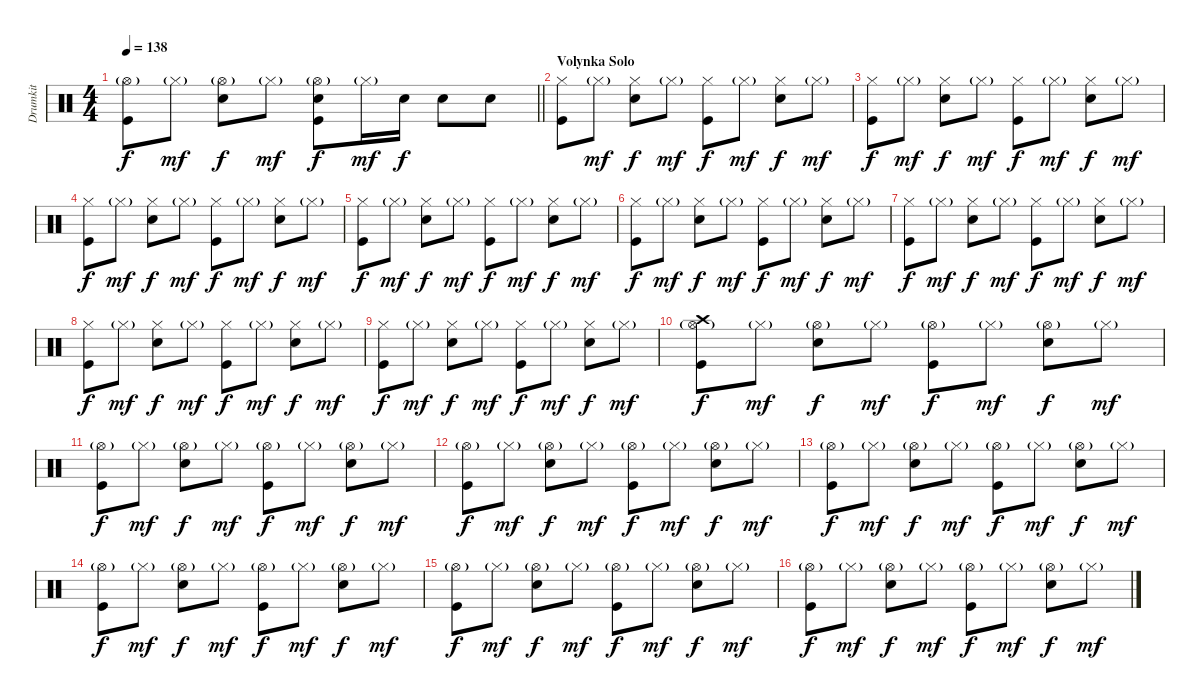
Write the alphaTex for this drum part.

\track ("Drumkit" "Drumkit") {instrument percussion}
\staff {score}
\articulation defaults
\ts (4 4)
\tempo 138
\clef neutral
\barLineRight lightlight
\ks c
("Hi-Hat (open)"{g} "Kick (hit)").8{dy f} "Hi-Hat (closed)"{g}.8{dy mf} ("Hi-Hat (open)"{g} "Snare (hit) 2").8{dy f} "Hi-Hat (closed)"{g}.8{dy mf} ("Hi-Hat (open)"{g} "Snare (hit) 2" "Kick (hit)").8{dy f} "Hi-Hat (closed)"{g}.16{dy mf} "Snare (hit) 2".16{dy f} "Snare (hit) 2".8 "Snare (hit) 2".8 |
\section ("" "Volynka Solo")
("Hi-Hat (closed)" "Kick (hit)").8 "Hi-Hat (closed)"{g}.8{dy mf} ("Hi-Hat (closed)" "Snare (hit) 2").8{dy f} "Hi-Hat (closed)"{g}.8{dy mf} ("Hi-Hat (closed)" "Kick (hit)").8{dy f} "Hi-Hat (closed)"{g}.8{dy mf} ("Hi-Hat (closed)" "Snare (hit) 2").8{dy f} "Hi-Hat (closed)"{g}.8{dy mf} |
("Hi-Hat (closed)" "Kick (hit)").8{dy f} "Hi-Hat (closed)"{g}.8{dy mf} ("Hi-Hat (closed)" "Snare (hit) 2").8{dy f} "Hi-Hat (closed)"{g}.8{dy mf} ("Hi-Hat (closed)" "Kick (hit)").8{dy f} "Hi-Hat (closed)"{g}.8{dy mf} ("Hi-Hat (closed)" "Snare (hit) 2").8{dy f} "Hi-Hat (closed)"{g}.8{dy mf} |
("Hi-Hat (closed)" "Kick (hit)").8{dy f} "Hi-Hat (closed)"{g}.8{dy mf} ("Hi-Hat (closed)" "Snare (hit) 2").8{dy f} "Hi-Hat (closed)"{g}.8{dy mf} ("Hi-Hat (closed)" "Kick (hit)").8{dy f} "Hi-Hat (closed)"{g}.8{dy mf} ("Hi-Hat (closed)" "Snare (hit) 2").8{dy f} "Hi-Hat (closed)"{g}.8{dy mf} |
("Hi-Hat (closed)" "Kick (hit)").8{dy f} "Hi-Hat (closed)"{g}.8{dy mf} ("Hi-Hat (closed)" "Snare (hit) 2").8{dy f} "Hi-Hat (closed)"{g}.8{dy mf} ("Hi-Hat (closed)" "Kick (hit)").8{dy f} "Hi-Hat (closed)"{g}.8{dy mf} ("Hi-Hat (closed)" "Snare (hit) 2").8{dy f} "Hi-Hat (closed)"{g}.8{dy mf} |
("Hi-Hat (closed)" "Kick (hit)").8{dy f} "Hi-Hat (closed)"{g}.8{dy mf} ("Hi-Hat (closed)" "Snare (hit) 2").8{dy f} "Hi-Hat (closed)"{g}.8{dy mf} ("Hi-Hat (closed)" "Kick (hit)").8{dy f} "Hi-Hat (closed)"{g}.8{dy mf} ("Hi-Hat (closed)" "Snare (hit) 2").8{dy f} "Hi-Hat (closed)"{g}.8{dy mf} |
("Hi-Hat (closed)" "Kick (hit)").8{dy f} "Hi-Hat (closed)"{g}.8{dy mf} ("Hi-Hat (closed)" "Snare (hit) 2").8{dy f} "Hi-Hat (closed)"{g}.8{dy mf} ("Hi-Hat (closed)" "Kick (hit)").8{dy f} "Hi-Hat (closed)"{g}.8{dy mf} ("Hi-Hat (closed)" "Snare (hit) 2").8{dy f} "Hi-Hat (closed)"{g}.8{dy mf} |
("Hi-Hat (closed)" "Kick (hit)").8{dy f} "Hi-Hat (closed)"{g}.8{dy mf} ("Hi-Hat (closed)" "Snare (hit) 2").8{dy f} "Hi-Hat (closed)"{g}.8{dy mf} ("Hi-Hat (closed)" "Kick (hit)").8{dy f} "Hi-Hat (closed)"{g}.8{dy mf} ("Hi-Hat (closed)" "Snare (hit) 2").8{dy f} "Hi-Hat (closed)"{g}.8{dy mf} |
("Hi-Hat (closed)" "Kick (hit)").8{dy f} "Hi-Hat (closed)"{g}.8{dy mf} ("Hi-Hat (closed)" "Snare (hit) 2").8{dy f} "Hi-Hat (closed)"{g}.8{dy mf} ("Hi-Hat (closed)" "Kick (hit)").8{dy f} "Hi-Hat (closed)"{g}.8{dy mf} ("Hi-Hat (closed)" "Snare (hit) 2").8{dy f} "Hi-Hat (closed)"{g}.8{dy mf} |
("Crash high (hit)" "Hi-Hat (open)"{g} "Kick (hit)").8{dy f} "Hi-Hat (closed)"{g}.8{dy mf} ("Hi-Hat (open)"{g} "Snare (hit) 2").8{dy f} "Hi-Hat (closed)"{g}.8{dy mf} ("Hi-Hat (open)"{g} "Kick (hit)").8{dy f} "Hi-Hat (closed)"{g}.8{dy mf} ("Hi-Hat (open)"{g} "Snare (hit) 2").8{dy f} "Hi-Hat (closed)"{g}.8{dy mf} |
("Hi-Hat (open)"{g} "Kick (hit)").8{dy f} "Hi-Hat (closed)"{g}.8{dy mf} ("Hi-Hat (open)"{g} "Snare (hit) 2").8{dy f} "Hi-Hat (closed)"{g}.8{dy mf} ("Hi-Hat (open)"{g} "Kick (hit)").8{dy f} "Hi-Hat (closed)"{g}.8{dy mf} ("Hi-Hat (open)"{g} "Snare (hit) 2").8{dy f} "Hi-Hat (closed)"{g}.8{dy mf} |
("Hi-Hat (open)"{g} "Kick (hit)").8{dy f} "Hi-Hat (closed)"{g}.8{dy mf} ("Hi-Hat (open)"{g} "Snare (hit) 2").8{dy f} "Hi-Hat (closed)"{g}.8{dy mf} ("Hi-Hat (open)"{g} "Kick (hit)").8{dy f} "Hi-Hat (closed)"{g}.8{dy mf} ("Hi-Hat (open)"{g} "Snare (hit) 2").8{dy f} "Hi-Hat (closed)"{g}.8{dy mf} |
("Hi-Hat (open)"{g} "Kick (hit)").8{dy f} "Hi-Hat (closed)"{g}.8{dy mf} ("Hi-Hat (open)"{g} "Snare (hit) 2").8{dy f} "Hi-Hat (closed)"{g}.8{dy mf} ("Hi-Hat (open)"{g} "Kick (hit)").8{dy f} "Hi-Hat (closed)"{g}.8{dy mf} ("Hi-Hat (open)"{g} "Snare (hit) 2").8{dy f} "Hi-Hat (closed)"{g}.8{dy mf} |
("Hi-Hat (open)"{g} "Kick (hit)").8{dy f} "Hi-Hat (closed)"{g}.8{dy mf} ("Hi-Hat (open)"{g} "Snare (hit) 2").8{dy f} "Hi-Hat (closed)"{g}.8{dy mf} ("Hi-Hat (open)"{g} "Kick (hit)").8{dy f} "Hi-Hat (closed)"{g}.8{dy mf} ("Hi-Hat (open)"{g} "Snare (hit) 2").8{dy f} "Hi-Hat (closed)"{g}.8{dy mf} |
("Hi-Hat (open)"{g} "Kick (hit)").8{dy f} "Hi-Hat (closed)"{g}.8{dy mf} ("Hi-Hat (open)"{g} "Snare (hit) 2").8{dy f} "Hi-Hat (closed)"{g}.8{dy mf} ("Hi-Hat (open)"{g} "Kick (hit)").8{dy f} "Hi-Hat (closed)"{g}.8{dy mf} ("Hi-Hat (open)"{g} "Snare (hit) 2").8{dy f} "Hi-Hat (closed)"{g}.8{dy mf} |
("Hi-Hat (open)"{g} "Kick (hit)").8{dy f} "Hi-Hat (closed)"{g}.8{dy mf} ("Hi-Hat (open)"{g} "Snare (hit) 2").8{dy f} "Hi-Hat (closed)"{g}.8{dy mf} ("Hi-Hat (open)"{g} "Kick (hit)").8{dy f} "Hi-Hat (closed)"{g}.8{dy mf} ("Hi-Hat (open)"{g} "Snare (hit) 2").8{dy f} "Hi-Hat (closed)"{g}.8{dy mf}
